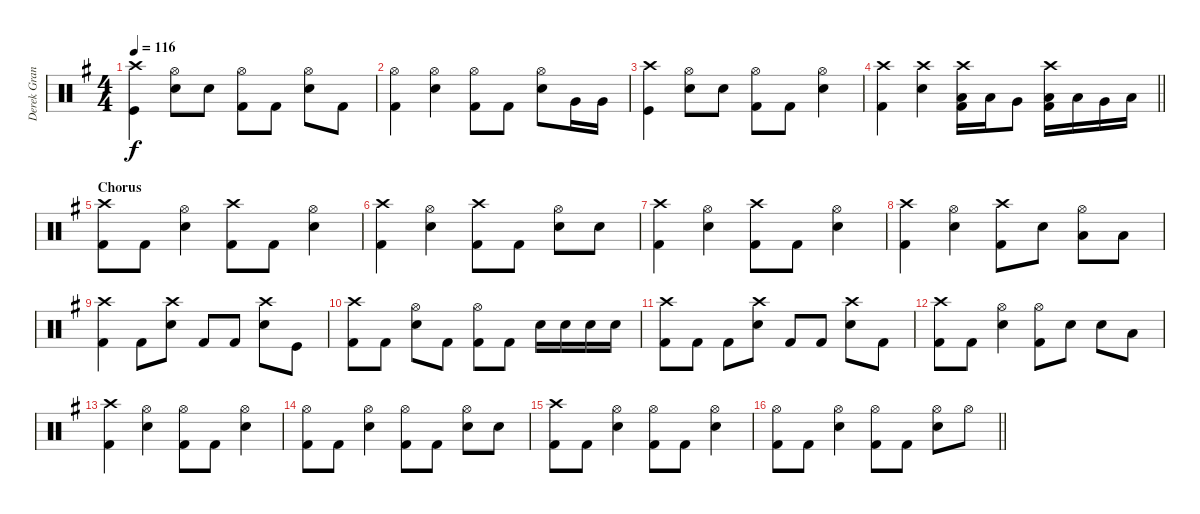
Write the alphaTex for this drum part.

\track ("Derek Grant - Drums" "Derek Gran") {instrument percussion}
\staff {score}
\articulation defaults
\ts (4 4)
\tempo 116
\clef neutral
\ks g
("Kick (hit)" "Crash high (hit)").4{dy f} ("Snare (hit) 2" "Hi-Hat (open)").8 "Snare (hit) 2".8 ("Hi-Hat (open)" "Kick (hit) 2").8 "Kick (hit) 2".8 ("Snare (hit) 2" "Hi-Hat (open)").8 "Kick (hit) 2".8 |
("Kick (hit) 2" "Hi-Hat (open)").4 ("Hi-Hat (open)" "Snare (hit) 2").4 ("Kick (hit) 2" "Hi-Hat (open)").8 "Kick (hit) 2".8 ("Snare (hit) 2" "Hi-Hat (open)").8 "Very Low Tom (hit)".16 "Very Low Tom (hit)".16 |
("Kick (hit)" "Crash high (hit)").4 ("Snare (hit) 2" "Hi-Hat (open)").8 "Snare (hit) 2".8 ("Hi-Hat (open)" "Kick (hit) 2").8 "Kick (hit) 2".8 ("Snare (hit) 2" "Hi-Hat (open)").4 |
\barLineRight lightlight
("Kick (hit) 2" "Crash high (hit)").4 ("Crash high (hit)" "Snare (hit) 2").4 ("Low Tom (hit)" "Kick (hit) 2" "Crash high (hit)").16 "Low Tom (hit)".16 "Very Low Tom (hit)".8 ("Low Tom (hit)" "Kick (hit) 2" "Crash high (hit)").16 "Low Tom (hit)".16 "Very Low Tom (hit)".16 "Low Floor Tom (hit)".16 |
\section ("" "Chorus")
("Kick (hit) 2" "Crash high (hit)").8 "Kick (hit) 2".8 ("Snare (hit) 2" "Hi-Hat (open)").4 ("Kick (hit) 2" "Crash high (hit)").8 "Kick (hit) 2".8 ("Snare (hit) 2" "Hi-Hat (open)").4 |
("Kick (hit) 2" "Crash high (hit)").4 ("Snare (hit) 2" "Hi-Hat (open)").4 ("Kick (hit) 2" "Crash high (hit)").8 "Kick (hit) 2".8 ("Snare (hit) 2" "Hi-Hat (open)").8 "Snare (hit) 2".8 |
("Kick (hit) 2" "Crash high (hit)").4 ("Snare (hit) 2" "Hi-Hat (open)").4 ("Kick (hit) 2" "Crash high (hit)").8 "Kick (hit) 2".8 ("Snare (hit) 2" "Hi-Hat (open)").4 |
("Kick (hit) 2" "Crash high (hit)").4 ("Snare (hit) 2" "Hi-Hat (open)").4 ("Kick (hit) 2" "Crash high (hit)").8 "Snare (hit) 2".8 ("Low Floor Tom (hit)" "Hi-Hat (open)").8 "Low Floor Tom (hit)".8 |
("Kick (hit) 2" "Crash high (hit)").4 "Kick (hit) 2".8 ("Snare (hit) 2" "Crash high (hit)").8 "Kick (hit) 2".8 "Kick (hit) 2".8 ("Snare (hit) 2" "Crash high (hit)").8 "Kick (hit)".8 |
("Crash high (hit)" "Kick (hit) 2").8 "Kick (hit) 2".8 ("Snare (hit) 2" "Hi-Hat (open)").8 "Kick (hit) 2".8 ("Kick (hit) 2" "Hi-Hat (open)").8 "Kick (hit) 2".8 "Snare (hit) 2".16 "Snare (hit) 2".16 "Snare (hit) 2".16 "Snare (hit) 2".16 |
("Kick (hit) 2" "Crash high (hit)").8 "Kick (hit) 2".8 "Kick (hit) 2".8 ("Snare (hit) 2" "Crash high (hit)").8 "Kick (hit) 2".8 "Kick (hit) 2".8 ("Snare (hit) 2" "Crash high (hit)").8 "Kick (hit) 2".8 |
("Kick (hit) 2" "Crash high (hit)").8 "Kick (hit) 2".8 ("Snare (hit) 2" "Hi-Hat (open)").4 ("Kick (hit) 2" "Hi-Hat (open)").8 "Snare (hit) 2".8 "Snare (hit) 2".8 "Low Tom (hit)".8 |
("Crash high (hit)" "Kick (hit) 2").4 ("Snare (hit) 2" "Hi-Hat (open)").4 ("Kick (hit) 2" "Hi-Hat (open)").8 "Kick (hit) 2".8 ("Snare (hit) 2" "Hi-Hat (open)").4 |
("Kick (hit) 2" "Hi-Hat (open)").8 "Kick (hit) 2".8 ("Snare (hit) 2" "Hi-Hat (open)").4 ("Kick (hit) 2" "Hi-Hat (open)").8 "Kick (hit) 2".8 ("Snare (hit) 2" "Hi-Hat (open)").8 "Snare (hit) 2".8 |
("Crash high (hit)" "Kick (hit) 2").8 "Kick (hit) 2".8 ("Snare (hit) 2" "Hi-Hat (open)").4 ("Kick (hit) 2" "Hi-Hat (open)").8 "Kick (hit) 2".8 ("Snare (hit) 2" "Hi-Hat (open)").4 |
\barLineRight lightlight
("Kick (hit) 2" "Hi-Hat (open)").8 "Kick (hit) 2".8 ("Snare (hit) 2" "Hi-Hat (open)").4 ("Kick (hit) 2" "Hi-Hat (open)").8 "Kick (hit) 2".8 ("Snare (hit) 2" "Hi-Hat (open)").8 "Hi-Hat (open)".8
